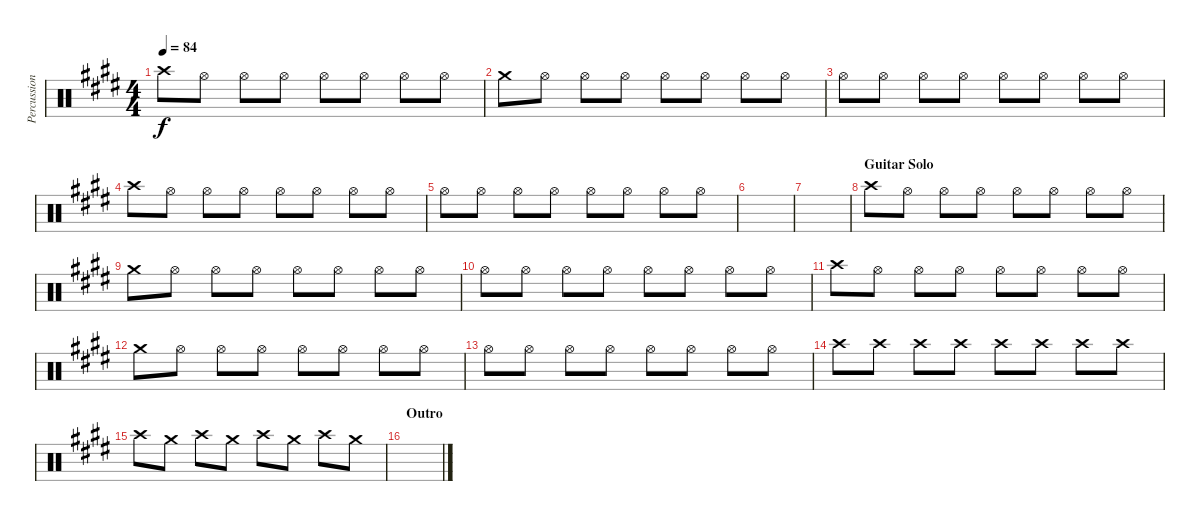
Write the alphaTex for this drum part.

\track ("Percussion" "Percussion") {instrument percussion}
\staff {score}
\articulation defaults
\ts (4 4)
\tempo 84
\clef neutral
\ks e "Crash high (hit)".8{dy f} "Hi-Hat (open)".8 "Hi-Hat (open)".8 "Hi-Hat (open)".8 "Hi-Hat (open)".8 "Hi-Hat (open)".8 "Hi-Hat (open)".8 "Hi-Hat (open)".8
|
"Crash medium (hit)".8 "Hi-Hat (open)".8 "Hi-Hat (open)".8 "Hi-Hat (open)".8 "Hi-Hat (open)".8 "Hi-Hat (open)".8 "Hi-Hat (open)".8 "Hi-Hat (open)".8 |
"Hi-Hat (open)".8 "Hi-Hat (open)".8 "Hi-Hat (open)".8 "Hi-Hat (open)".8 "Hi-Hat (open)".8 "Hi-Hat (open)".8 "Hi-Hat (open)".8 "Hi-Hat (open)".8 |
"Crash high (hit)".8 "Hi-Hat (open)".8 "Hi-Hat (open)".8 "Hi-Hat (open)".8 "Hi-Hat (open)".8 "Hi-Hat (open)".8 "Hi-Hat (open)".8 "Hi-Hat (open)".8 |
"Hi-Hat (open)".8 "Hi-Hat (open)".8 "Hi-Hat (open)".8 "Hi-Hat (open)".8 "Hi-Hat (open)".8 "Hi-Hat (open)".8 "Hi-Hat (open)".8 "Hi-Hat (open)".8 |
|
|
\section ("" "Guitar Solo")
"Crash high (hit)".8 "Hi-Hat (open)".8 "Hi-Hat (open)".8 "Hi-Hat (open)".8 "Hi-Hat (open)".8 "Hi-Hat (open)".8 "Hi-Hat (open)".8 "Hi-Hat (open)".8 |
"Crash medium (hit)".8 "Hi-Hat (open)".8 "Hi-Hat (open)".8 "Hi-Hat (open)".8 "Hi-Hat (open)".8 "Hi-Hat (open)".8 "Hi-Hat (open)".8 "Hi-Hat (open)".8 |
"Hi-Hat (open)".8 "Hi-Hat (open)".8 "Hi-Hat (open)".8 "Hi-Hat (open)".8 "Hi-Hat (open)".8 "Hi-Hat (open)".8 "Hi-Hat (open)".8 "Hi-Hat (open)".8 |
"Crash high (hit)".8 "Hi-Hat (open)".8 "Hi-Hat (open)".8 "Hi-Hat (open)".8 "Hi-Hat (open)".8 "Hi-Hat (open)".8 "Hi-Hat (open)".8 "Hi-Hat (open)".8 |
"Crash medium (hit)".8 "Hi-Hat (open)".8 "Hi-Hat (open)".8 "Hi-Hat (open)".8 "Hi-Hat (open)".8 "Hi-Hat (open)".8 "Hi-Hat (open)".8 "Hi-Hat (open)".8 |
"Hi-Hat (open)".8 "Hi-Hat (open)".8 "Hi-Hat (open)".8 "Hi-Hat (open)".8 "Hi-Hat (open)".8 "Hi-Hat (open)".8 "Hi-Hat (open)".8 "Hi-Hat (open)".8 |
"Crash high (hit)".8 "Crash high (hit)".8 "Crash high (hit)".8 "Crash high (hit)".8 "Crash high (hit)".8 "Crash high (hit)".8 "Crash high (hit)".8 "Crash high (hit)".8 |
"Crash high (hit)".8 "Crash medium (hit)".8 "Crash high (hit)".8 "Crash medium (hit)".8 "Crash high (hit)".8 "Crash medium (hit)".8 "Crash high (hit)".8 "Crash medium (hit)".8 |
\section ("" "Outro")
